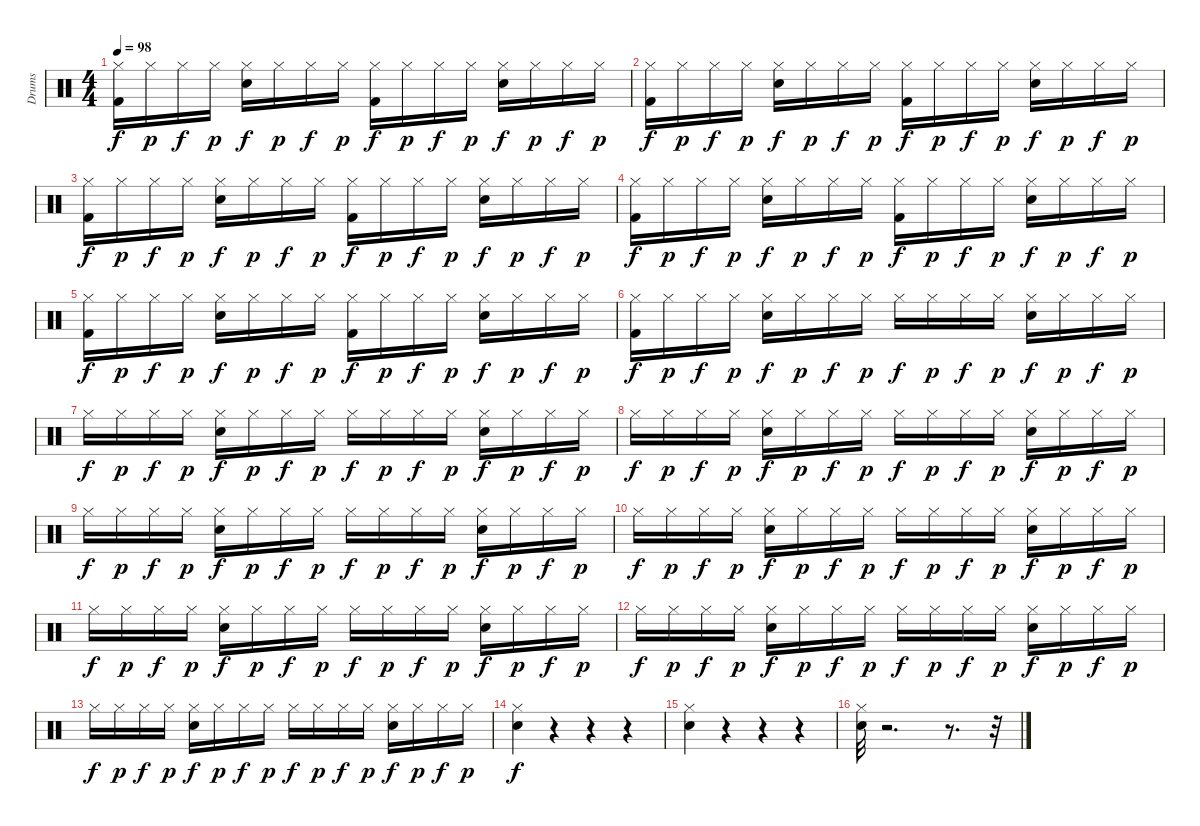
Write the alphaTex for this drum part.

\track ("Drums" "Drums") {instrument percussion}
\staff {score}
\articulation defaults
\ts (4 4)
\tempo 98
\clef neutral
\ks c
("Hi-Hat (closed)" "Kick (hit) 2").16{dy f} "Hi-Hat (closed)".16{dy p} "Hi-Hat (closed)".16{dy f} "Hi-Hat (closed)".16{dy p} ("Hi-Hat (closed)" "Electric Snare (hit)").16{dy f} "Hi-Hat (closed)".16{dy p} "Hi-Hat (closed)".16{dy f} "Hi-Hat (closed)".16{dy p} ("Hi-Hat (closed)" "Kick (hit) 2").16{dy f} "Hi-Hat (closed)".16{dy p} "Hi-Hat (closed)".16{dy f} "Hi-Hat (closed)".16{dy p} ("Hi-Hat (closed)" "Electric Snare (hit)").16{dy f} "Hi-Hat (closed)".16{dy p} "Hi-Hat (closed)".16{dy f} "Hi-Hat (closed)".16{dy p} |
("Hi-Hat (closed)" "Kick (hit) 2").16{dy f} "Hi-Hat (closed)".16{dy p} "Hi-Hat (closed)".16{dy f} "Hi-Hat (closed)".16{dy p} ("Hi-Hat (closed)" "Electric Snare (hit)").16{dy f} "Hi-Hat (closed)".16{dy p} "Hi-Hat (closed)".16{dy f} "Hi-Hat (closed)".16{dy p} ("Hi-Hat (closed)" "Kick (hit) 2").16{dy f} "Hi-Hat (closed)".16{dy p} "Hi-Hat (closed)".16{dy f} "Hi-Hat (closed)".16{dy p} ("Hi-Hat (closed)" "Electric Snare (hit)").16{dy f} "Hi-Hat (closed)".16{dy p} "Hi-Hat (closed)".16{dy f} "Hi-Hat (closed)".16{dy p} |
("Hi-Hat (closed)" "Kick (hit) 2").16{dy f} "Hi-Hat (closed)".16{dy p} "Hi-Hat (closed)".16{dy f} "Hi-Hat (closed)".16{dy p} ("Hi-Hat (closed)" "Electric Snare (hit)").16{dy f} "Hi-Hat (closed)".16{dy p} "Hi-Hat (closed)".16{dy f} "Hi-Hat (closed)".16{dy p} ("Hi-Hat (closed)" "Kick (hit) 2").16{dy f} "Hi-Hat (closed)".16{dy p} "Hi-Hat (closed)".16{dy f} "Hi-Hat (closed)".16{dy p} ("Hi-Hat (closed)" "Electric Snare (hit)").16{dy f} "Hi-Hat (closed)".16{dy p} "Hi-Hat (closed)".16{dy f} "Hi-Hat (closed)".16{dy p} |
("Hi-Hat (closed)" "Kick (hit) 2").16{dy f} "Hi-Hat (closed)".16{dy p} "Hi-Hat (closed)".16{dy f} "Hi-Hat (closed)".16{dy p} ("Hi-Hat (closed)" "Electric Snare (hit)").16{dy f} "Hi-Hat (closed)".16{dy p} "Hi-Hat (closed)".16{dy f} "Hi-Hat (closed)".16{dy p} ("Hi-Hat (closed)" "Kick (hit) 2").16{dy f} "Hi-Hat (closed)".16{dy p} "Hi-Hat (closed)".16{dy f} "Hi-Hat (closed)".16{dy p} ("Hi-Hat (closed)" "Electric Snare (hit)").16{dy f} "Hi-Hat (closed)".16{dy p} "Hi-Hat (closed)".16{dy f} "Hi-Hat (closed)".16{dy p} |
("Hi-Hat (closed)" "Kick (hit) 2").16{dy f} "Hi-Hat (closed)".16{dy p} "Hi-Hat (closed)".16{dy f} "Hi-Hat (closed)".16{dy p} ("Hi-Hat (closed)" "Electric Snare (hit)").16{dy f} "Hi-Hat (closed)".16{dy p} "Hi-Hat (closed)".16{dy f} "Hi-Hat (closed)".16{dy p} ("Hi-Hat (closed)" "Kick (hit) 2").16{dy f} "Hi-Hat (closed)".16{dy p} "Hi-Hat (closed)".16{dy f} "Hi-Hat (closed)".16{dy p} ("Hi-Hat (closed)" "Electric Snare (hit)").16{dy f} "Hi-Hat (closed)".16{dy p} "Hi-Hat (closed)".16{dy f} "Hi-Hat (closed)".16{dy p} |
("Hi-Hat (closed)" "Kick (hit) 2").16{dy f} "Hi-Hat (closed)".16{dy p} "Hi-Hat (closed)".16{dy f} "Hi-Hat (closed)".16{dy p} ("Hi-Hat (closed)" "Electric Snare (hit)").16{dy f} "Hi-Hat (closed)".16{dy p} "Hi-Hat (closed)".16{dy f} "Hi-Hat (closed)".16{dy p} "Hi-Hat (closed)".16{dy f} "Hi-Hat (closed)".16{dy p} "Hi-Hat (closed)".16{dy f} "Hi-Hat (closed)".16{dy p} ("Hi-Hat (closed)" "Electric Snare (hit)").16{dy f} "Hi-Hat (closed)".16{dy p} "Hi-Hat (closed)".16{dy f} "Hi-Hat (closed)".16{dy p} |
"Hi-Hat (closed)".16{dy f} "Hi-Hat (closed)".16{dy p} "Hi-Hat (closed)".16{dy f} "Hi-Hat (closed)".16{dy p} ("Hi-Hat (closed)" "Electric Snare (hit)").16{dy f} "Hi-Hat (closed)".16{dy p} "Hi-Hat (closed)".16{dy f} "Hi-Hat (closed)".16{dy p} "Hi-Hat (closed)".16{dy f} "Hi-Hat (closed)".16{dy p} "Hi-Hat (closed)".16{dy f} "Hi-Hat (closed)".16{dy p} ("Hi-Hat (closed)" "Electric Snare (hit)").16{dy f} "Hi-Hat (closed)".16{dy p} "Hi-Hat (closed)".16{dy f} "Hi-Hat (closed)".16{dy p} |
"Hi-Hat (closed)".16{dy f} "Hi-Hat (closed)".16{dy p} "Hi-Hat (closed)".16{dy f} "Hi-Hat (closed)".16{dy p} ("Hi-Hat (closed)" "Electric Snare (hit)").16{dy f} "Hi-Hat (closed)".16{dy p} "Hi-Hat (closed)".16{dy f} "Hi-Hat (closed)".16{dy p} "Hi-Hat (closed)".16{dy f} "Hi-Hat (closed)".16{dy p} "Hi-Hat (closed)".16{dy f} "Hi-Hat (closed)".16{dy p} ("Hi-Hat (closed)" "Electric Snare (hit)").16{dy f} "Hi-Hat (closed)".16{dy p} "Hi-Hat (closed)".16{dy f} "Hi-Hat (closed)".16{dy p} |
"Hi-Hat (closed)".16{dy f} "Hi-Hat (closed)".16{dy p} "Hi-Hat (closed)".16{dy f} "Hi-Hat (closed)".16{dy p} ("Hi-Hat (closed)" "Electric Snare (hit)").16{dy f} "Hi-Hat (closed)".16{dy p} "Hi-Hat (closed)".16{dy f} "Hi-Hat (closed)".16{dy p} "Hi-Hat (closed)".16{dy f} "Hi-Hat (closed)".16{dy p} "Hi-Hat (closed)".16{dy f} "Hi-Hat (closed)".16{dy p} ("Hi-Hat (closed)" "Electric Snare (hit)").16{dy f} "Hi-Hat (closed)".16{dy p} "Hi-Hat (closed)".16{dy f} "Hi-Hat (closed)".16{dy p} |
"Hi-Hat (closed)".16{dy f} "Hi-Hat (closed)".16{dy p} "Hi-Hat (closed)".16{dy f} "Hi-Hat (closed)".16{dy p} ("Hi-Hat (closed)" "Electric Snare (hit)").16{dy f} "Hi-Hat (closed)".16{dy p} "Hi-Hat (closed)".16{dy f} "Hi-Hat (closed)".16{dy p} "Hi-Hat (closed)".16{dy f} "Hi-Hat (closed)".16{dy p} "Hi-Hat (closed)".16{dy f} "Hi-Hat (closed)".16{dy p} ("Hi-Hat (closed)" "Electric Snare (hit)").16{dy f} "Hi-Hat (closed)".16{dy p} "Hi-Hat (closed)".16{dy f} "Hi-Hat (closed)".16{dy p} |
"Hi-Hat (closed)".16{dy f} "Hi-Hat (closed)".16{dy p} "Hi-Hat (closed)".16{dy f} "Hi-Hat (closed)".16{dy p} ("Hi-Hat (closed)" "Electric Snare (hit)").16{dy f} "Hi-Hat (closed)".16{dy p} "Hi-Hat (closed)".16{dy f} "Hi-Hat (closed)".16{dy p} "Hi-Hat (closed)".16{dy f} "Hi-Hat (closed)".16{dy p} "Hi-Hat (closed)".16{dy f} "Hi-Hat (closed)".16{dy p} ("Hi-Hat (closed)" "Electric Snare (hit)").16{dy f} "Hi-Hat (closed)".16{dy p} "Hi-Hat (closed)".16{dy f} "Hi-Hat (closed)".16{dy p} |
"Hi-Hat (closed)".16{dy f} "Hi-Hat (closed)".16{dy p} "Hi-Hat (closed)".16{dy f} "Hi-Hat (closed)".16{dy p} ("Hi-Hat (closed)" "Electric Snare (hit)").16{dy f} "Hi-Hat (closed)".16{dy p} "Hi-Hat (closed)".16{dy f} "Hi-Hat (closed)".16{dy p} "Hi-Hat (closed)".16{dy f} "Hi-Hat (closed)".16{dy p} "Hi-Hat (closed)".16{dy f} "Hi-Hat (closed)".16{dy p} ("Hi-Hat (closed)" "Electric Snare (hit)").16{dy f} "Hi-Hat (closed)".16{dy p} "Hi-Hat (closed)".16{dy f} "Hi-Hat (closed)".16{dy p} |
"Hi-Hat (closed)".16{dy f} "Hi-Hat (closed)".16{dy p} "Hi-Hat (closed)".16{dy f} "Hi-Hat (closed)".16{dy p} ("Hi-Hat (closed)" "Electric Snare (hit)").16{dy f} "Hi-Hat (closed)".16{dy p} "Hi-Hat (closed)".16{dy f} "Hi-Hat (closed)".16{dy p} "Hi-Hat (closed)".16{dy f} "Hi-Hat (closed)".16{dy p} "Hi-Hat (closed)".16{dy f} "Hi-Hat (closed)".16{dy p} ("Hi-Hat (closed)" "Electric Snare (hit)").16{dy f} "Hi-Hat (closed)".16{dy p} "Hi-Hat (closed)".16{dy f} "Hi-Hat (closed)".16{dy p} |
("Hi-Hat (closed)" "Electric Snare (hit)").4{dy f} r.4 r.4 r.4 |
("Hi-Hat (closed)" "Electric Snare (hit)").4 r.4 r.4 r.4 |
("Electric Snare (hit)" "Hi-Hat (closed)").32 r.2{d} r.8{d} r.32
